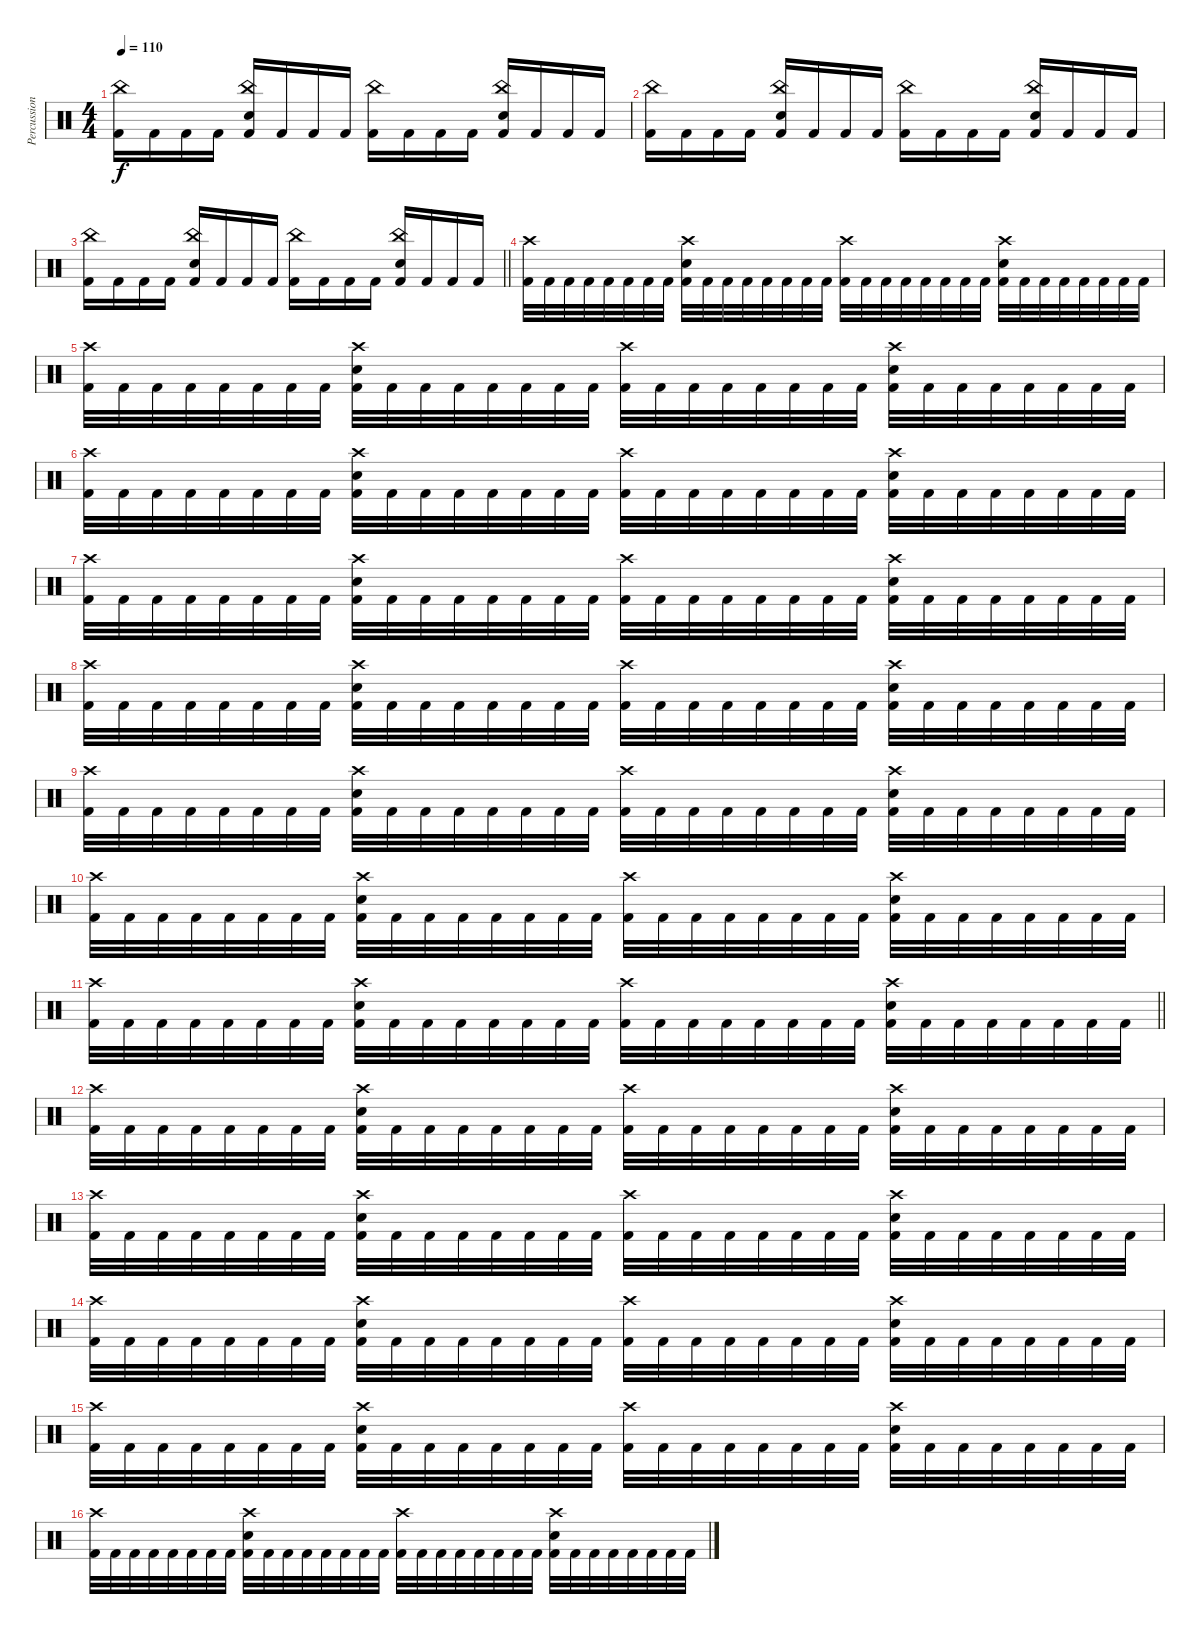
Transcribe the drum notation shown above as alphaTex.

\track ("Percussions" "Percussion") {instrument percussion}
\staff {score}
\articulation defaults
\ts (4 4)
\tempo 110
\clef neutral
\ks c
("Kick (hit) 2" "China (hit)").16{dy f} "Kick (hit) 2".16 "Kick (hit) 2".16 "Kick (hit) 2".16 ("Kick (hit) 2" "Electric Snare (hit)" "China (hit)").16 "Kick (hit) 2".16 "Kick (hit) 2".16 "Kick (hit) 2".16 ("Kick (hit) 2" "China (hit)").16 "Kick (hit) 2".16 "Kick (hit) 2".16 "Kick (hit) 2".16 ("Kick (hit) 2" "Electric Snare (hit)" "China (hit)").16 "Kick (hit) 2".16 "Kick (hit) 2".16 "Kick (hit) 2".16 |
("Kick (hit) 2" "China (hit)").16 "Kick (hit) 2".16 "Kick (hit) 2".16 "Kick (hit) 2".16 ("Kick (hit) 2" "Electric Snare (hit)" "China (hit)").16 "Kick (hit) 2".16 "Kick (hit) 2".16 "Kick (hit) 2".16 ("Kick (hit) 2" "China (hit)").16 "Kick (hit) 2".16 "Kick (hit) 2".16 "Kick (hit) 2".16 ("Kick (hit) 2" "Electric Snare (hit)" "China (hit)").16 "Kick (hit) 2".16 "Kick (hit) 2".16 "Kick (hit) 2".16 |
\barLineRight lightlight
("Kick (hit) 2" "China (hit)").16 "Kick (hit) 2".16 "Kick (hit) 2".16 "Kick (hit) 2".16 ("Kick (hit) 2" "Electric Snare (hit)" "China (hit)").16 "Kick (hit) 2".16 "Kick (hit) 2".16 "Kick (hit) 2".16 ("Kick (hit) 2" "China (hit)").16 "Kick (hit) 2".16 "Kick (hit) 2".16 "Kick (hit) 2".16 ("Kick (hit) 2" "Electric Snare (hit)" "China (hit)").16 "Kick (hit) 2".16 "Kick (hit) 2".16 "Kick (hit) 2".16 |
("Kick (hit) 2" "Crash high (hit)").32 "Kick (hit) 2".32 "Kick (hit) 2".32 "Kick (hit) 2".32 "Kick (hit) 2".32 "Kick (hit) 2".32 "Kick (hit) 2".32 "Kick (hit) 2".32 ("Kick (hit) 2" "Electric Snare (hit)" "Crash high (hit)").32 "Kick (hit) 2".32 "Kick (hit) 2".32 "Kick (hit) 2".32 "Kick (hit) 2".32 "Kick (hit) 2".32 "Kick (hit) 2".32 "Kick (hit) 2".32 ("Kick (hit) 2" "Crash high (hit)").32 "Kick (hit) 2".32 "Kick (hit) 2".32 "Kick (hit) 2".32 "Kick (hit) 2".32 "Kick (hit) 2".32 "Kick (hit) 2".32 "Kick (hit) 2".32 ("Kick (hit) 2" "Electric Snare (hit)" "Crash high (hit)").32 "Kick (hit) 2".32 "Kick (hit) 2".32 "Kick (hit) 2".32 "Kick (hit) 2".32 "Kick (hit) 2".32 "Kick (hit) 2".32 "Kick (hit) 2".32 |
("Kick (hit) 2" "Crash high (hit)").32 "Kick (hit) 2".32 "Kick (hit) 2".32 "Kick (hit) 2".32 "Kick (hit) 2".32 "Kick (hit) 2".32 "Kick (hit) 2".32 "Kick (hit) 2".32 ("Kick (hit) 2" "Electric Snare (hit)" "Crash high (hit)").32 "Kick (hit) 2".32 "Kick (hit) 2".32 "Kick (hit) 2".32 "Kick (hit) 2".32 "Kick (hit) 2".32 "Kick (hit) 2".32 "Kick (hit) 2".32 ("Kick (hit) 2" "Crash high (hit)").32 "Kick (hit) 2".32 "Kick (hit) 2".32 "Kick (hit) 2".32 "Kick (hit) 2".32 "Kick (hit) 2".32 "Kick (hit) 2".32 "Kick (hit) 2".32 ("Kick (hit) 2" "Electric Snare (hit)" "Crash high (hit)").32 "Kick (hit) 2".32 "Kick (hit) 2".32 "Kick (hit) 2".32 "Kick (hit) 2".32 "Kick (hit) 2".32 "Kick (hit) 2".32 "Kick (hit) 2".32 |
("Kick (hit) 2" "Crash high (hit)").32 "Kick (hit) 2".32 "Kick (hit) 2".32 "Kick (hit) 2".32 "Kick (hit) 2".32 "Kick (hit) 2".32 "Kick (hit) 2".32 "Kick (hit) 2".32 ("Kick (hit) 2" "Electric Snare (hit)" "Crash high (hit)").32 "Kick (hit) 2".32 "Kick (hit) 2".32 "Kick (hit) 2".32 "Kick (hit) 2".32 "Kick (hit) 2".32 "Kick (hit) 2".32 "Kick (hit) 2".32 ("Kick (hit) 2" "Crash high (hit)").32 "Kick (hit) 2".32 "Kick (hit) 2".32 "Kick (hit) 2".32 "Kick (hit) 2".32 "Kick (hit) 2".32 "Kick (hit) 2".32 "Kick (hit) 2".32 ("Kick (hit) 2" "Electric Snare (hit)" "Crash high (hit)").32 "Kick (hit) 2".32 "Kick (hit) 2".32 "Kick (hit) 2".32 "Kick (hit) 2".32 "Kick (hit) 2".32 "Kick (hit) 2".32 "Kick (hit) 2".32 |
("Kick (hit) 2" "Crash high (hit)").32 "Kick (hit) 2".32 "Kick (hit) 2".32 "Kick (hit) 2".32 "Kick (hit) 2".32 "Kick (hit) 2".32 "Kick (hit) 2".32 "Kick (hit) 2".32 ("Kick (hit) 2" "Electric Snare (hit)" "Crash high (hit)").32 "Kick (hit) 2".32 "Kick (hit) 2".32 "Kick (hit) 2".32 "Kick (hit) 2".32 "Kick (hit) 2".32 "Kick (hit) 2".32 "Kick (hit) 2".32 ("Kick (hit) 2" "Crash high (hit)").32 "Kick (hit) 2".32 "Kick (hit) 2".32 "Kick (hit) 2".32 "Kick (hit) 2".32 "Kick (hit) 2".32 "Kick (hit) 2".32 "Kick (hit) 2".32 ("Kick (hit) 2" "Electric Snare (hit)" "Crash high (hit)").32 "Kick (hit) 2".32 "Kick (hit) 2".32 "Kick (hit) 2".32 "Kick (hit) 2".32 "Kick (hit) 2".32 "Kick (hit) 2".32 "Kick (hit) 2".32 |
("Kick (hit) 2" "Crash high (hit)").32 "Kick (hit) 2".32 "Kick (hit) 2".32 "Kick (hit) 2".32 "Kick (hit) 2".32 "Kick (hit) 2".32 "Kick (hit) 2".32 "Kick (hit) 2".32 ("Kick (hit) 2" "Electric Snare (hit)" "Crash high (hit)").32 "Kick (hit) 2".32 "Kick (hit) 2".32 "Kick (hit) 2".32 "Kick (hit) 2".32 "Kick (hit) 2".32 "Kick (hit) 2".32 "Kick (hit) 2".32 ("Kick (hit) 2" "Crash high (hit)").32 "Kick (hit) 2".32 "Kick (hit) 2".32 "Kick (hit) 2".32 "Kick (hit) 2".32 "Kick (hit) 2".32 "Kick (hit) 2".32 "Kick (hit) 2".32 ("Kick (hit) 2" "Electric Snare (hit)" "Crash high (hit)").32 "Kick (hit) 2".32 "Kick (hit) 2".32 "Kick (hit) 2".32 "Kick (hit) 2".32 "Kick (hit) 2".32 "Kick (hit) 2".32 "Kick (hit) 2".32 |
("Kick (hit) 2" "Crash high (hit)").32 "Kick (hit) 2".32 "Kick (hit) 2".32 "Kick (hit) 2".32 "Kick (hit) 2".32 "Kick (hit) 2".32 "Kick (hit) 2".32 "Kick (hit) 2".32 ("Kick (hit) 2" "Electric Snare (hit)" "Crash high (hit)").32 "Kick (hit) 2".32 "Kick (hit) 2".32 "Kick (hit) 2".32 "Kick (hit) 2".32 "Kick (hit) 2".32 "Kick (hit) 2".32 "Kick (hit) 2".32 ("Kick (hit) 2" "Crash high (hit)").32 "Kick (hit) 2".32 "Kick (hit) 2".32 "Kick (hit) 2".32 "Kick (hit) 2".32 "Kick (hit) 2".32 "Kick (hit) 2".32 "Kick (hit) 2".32 ("Kick (hit) 2" "Electric Snare (hit)" "Crash high (hit)").32 "Kick (hit) 2".32 "Kick (hit) 2".32 "Kick (hit) 2".32 "Kick (hit) 2".32 "Kick (hit) 2".32 "Kick (hit) 2".32 "Kick (hit) 2".32 |
("Kick (hit) 2" "Crash high (hit)").32 "Kick (hit) 2".32 "Kick (hit) 2".32 "Kick (hit) 2".32 "Kick (hit) 2".32 "Kick (hit) 2".32 "Kick (hit) 2".32 "Kick (hit) 2".32 ("Kick (hit) 2" "Electric Snare (hit)" "Crash high (hit)").32 "Kick (hit) 2".32 "Kick (hit) 2".32 "Kick (hit) 2".32 "Kick (hit) 2".32 "Kick (hit) 2".32 "Kick (hit) 2".32 "Kick (hit) 2".32 ("Kick (hit) 2" "Crash high (hit)").32 "Kick (hit) 2".32 "Kick (hit) 2".32 "Kick (hit) 2".32 "Kick (hit) 2".32 "Kick (hit) 2".32 "Kick (hit) 2".32 "Kick (hit) 2".32 ("Kick (hit) 2" "Electric Snare (hit)" "Crash high (hit)").32 "Kick (hit) 2".32 "Kick (hit) 2".32 "Kick (hit) 2".32 "Kick (hit) 2".32 "Kick (hit) 2".32 "Kick (hit) 2".32 "Kick (hit) 2".32 |
\barLineRight lightlight
("Kick (hit) 2" "Crash high (hit)").32 "Kick (hit) 2".32 "Kick (hit) 2".32 "Kick (hit) 2".32 "Kick (hit) 2".32 "Kick (hit) 2".32 "Kick (hit) 2".32 "Kick (hit) 2".32 ("Kick (hit) 2" "Electric Snare (hit)" "Crash high (hit)").32 "Kick (hit) 2".32 "Kick (hit) 2".32 "Kick (hit) 2".32 "Kick (hit) 2".32 "Kick (hit) 2".32 "Kick (hit) 2".32 "Kick (hit) 2".32 ("Kick (hit) 2" "Crash high (hit)").32 "Kick (hit) 2".32 "Kick (hit) 2".32 "Kick (hit) 2".32 "Kick (hit) 2".32 "Kick (hit) 2".32 "Kick (hit) 2".32 "Kick (hit) 2".32 ("Kick (hit) 2" "Electric Snare (hit)" "Crash high (hit)").32 "Kick (hit) 2".32 "Kick (hit) 2".32 "Kick (hit) 2".32 "Kick (hit) 2".32 "Kick (hit) 2".32 "Kick (hit) 2".32 "Kick (hit) 2".32 |
("Kick (hit) 2" "Crash high (hit)").32 "Kick (hit) 2".32 "Kick (hit) 2".32 "Kick (hit) 2".32 "Kick (hit) 2".32 "Kick (hit) 2".32 "Kick (hit) 2".32 "Kick (hit) 2".32 ("Kick (hit) 2" "Electric Snare (hit)" "Crash high (hit)").32 "Kick (hit) 2".32 "Kick (hit) 2".32 "Kick (hit) 2".32 "Kick (hit) 2".32 "Kick (hit) 2".32 "Kick (hit) 2".32 "Kick (hit) 2".32 ("Kick (hit) 2" "Crash high (hit)").32 "Kick (hit) 2".32 "Kick (hit) 2".32 "Kick (hit) 2".32 "Kick (hit) 2".32 "Kick (hit) 2".32 "Kick (hit) 2".32 "Kick (hit) 2".32 ("Kick (hit) 2" "Electric Snare (hit)" "Crash high (hit)").32 "Kick (hit) 2".32 "Kick (hit) 2".32 "Kick (hit) 2".32 "Kick (hit) 2".32 "Kick (hit) 2".32 "Kick (hit) 2".32 "Kick (hit) 2".32 |
("Kick (hit) 2" "Crash high (hit)").32 "Kick (hit) 2".32 "Kick (hit) 2".32 "Kick (hit) 2".32 "Kick (hit) 2".32 "Kick (hit) 2".32 "Kick (hit) 2".32 "Kick (hit) 2".32 ("Kick (hit) 2" "Electric Snare (hit)" "Crash high (hit)").32 "Kick (hit) 2".32 "Kick (hit) 2".32 "Kick (hit) 2".32 "Kick (hit) 2".32 "Kick (hit) 2".32 "Kick (hit) 2".32 "Kick (hit) 2".32 ("Kick (hit) 2" "Crash high (hit)").32 "Kick (hit) 2".32 "Kick (hit) 2".32 "Kick (hit) 2".32 "Kick (hit) 2".32 "Kick (hit) 2".32 "Kick (hit) 2".32 "Kick (hit) 2".32 ("Kick (hit) 2" "Electric Snare (hit)" "Crash high (hit)").32 "Kick (hit) 2".32 "Kick (hit) 2".32 "Kick (hit) 2".32 "Kick (hit) 2".32 "Kick (hit) 2".32 "Kick (hit) 2".32 "Kick (hit) 2".32 |
("Kick (hit) 2" "Crash high (hit)").32 "Kick (hit) 2".32 "Kick (hit) 2".32 "Kick (hit) 2".32 "Kick (hit) 2".32 "Kick (hit) 2".32 "Kick (hit) 2".32 "Kick (hit) 2".32 ("Kick (hit) 2" "Electric Snare (hit)" "Crash high (hit)").32 "Kick (hit) 2".32 "Kick (hit) 2".32 "Kick (hit) 2".32 "Kick (hit) 2".32 "Kick (hit) 2".32 "Kick (hit) 2".32 "Kick (hit) 2".32 ("Kick (hit) 2" "Crash high (hit)").32 "Kick (hit) 2".32 "Kick (hit) 2".32 "Kick (hit) 2".32 "Kick (hit) 2".32 "Kick (hit) 2".32 "Kick (hit) 2".32 "Kick (hit) 2".32 ("Kick (hit) 2" "Electric Snare (hit)" "Crash high (hit)").32 "Kick (hit) 2".32 "Kick (hit) 2".32 "Kick (hit) 2".32 "Kick (hit) 2".32 "Kick (hit) 2".32 "Kick (hit) 2".32 "Kick (hit) 2".32 |
("Kick (hit) 2" "Crash high (hit)").32 "Kick (hit) 2".32 "Kick (hit) 2".32 "Kick (hit) 2".32 "Kick (hit) 2".32 "Kick (hit) 2".32 "Kick (hit) 2".32 "Kick (hit) 2".32 ("Kick (hit) 2" "Electric Snare (hit)" "Crash high (hit)").32 "Kick (hit) 2".32 "Kick (hit) 2".32 "Kick (hit) 2".32 "Kick (hit) 2".32 "Kick (hit) 2".32 "Kick (hit) 2".32 "Kick (hit) 2".32 ("Kick (hit) 2" "Crash high (hit)").32 "Kick (hit) 2".32 "Kick (hit) 2".32 "Kick (hit) 2".32 "Kick (hit) 2".32 "Kick (hit) 2".32 "Kick (hit) 2".32 "Kick (hit) 2".32 ("Kick (hit) 2" "Electric Snare (hit)" "Crash high (hit)").32 "Kick (hit) 2".32 "Kick (hit) 2".32 "Kick (hit) 2".32 "Kick (hit) 2".32 "Kick (hit) 2".32 "Kick (hit) 2".32 "Kick (hit) 2".32 |
("Kick (hit) 2" "Crash high (hit)").32 "Kick (hit) 2".32 "Kick (hit) 2".32 "Kick (hit) 2".32 "Kick (hit) 2".32 "Kick (hit) 2".32 "Kick (hit) 2".32 "Kick (hit) 2".32 ("Kick (hit) 2" "Electric Snare (hit)" "Crash high (hit)").32 "Kick (hit) 2".32 "Kick (hit) 2".32 "Kick (hit) 2".32 "Kick (hit) 2".32 "Kick (hit) 2".32 "Kick (hit) 2".32 "Kick (hit) 2".32 ("Kick (hit) 2" "Crash high (hit)").32 "Kick (hit) 2".32 "Kick (hit) 2".32 "Kick (hit) 2".32 "Kick (hit) 2".32 "Kick (hit) 2".32 "Kick (hit) 2".32 "Kick (hit) 2".32 ("Kick (hit) 2" "Electric Snare (hit)" "Crash high (hit)").32 "Kick (hit) 2".32 "Kick (hit) 2".32 "Kick (hit) 2".32 "Kick (hit) 2".32 "Kick (hit) 2".32 "Kick (hit) 2".32 "Kick (hit) 2".32
